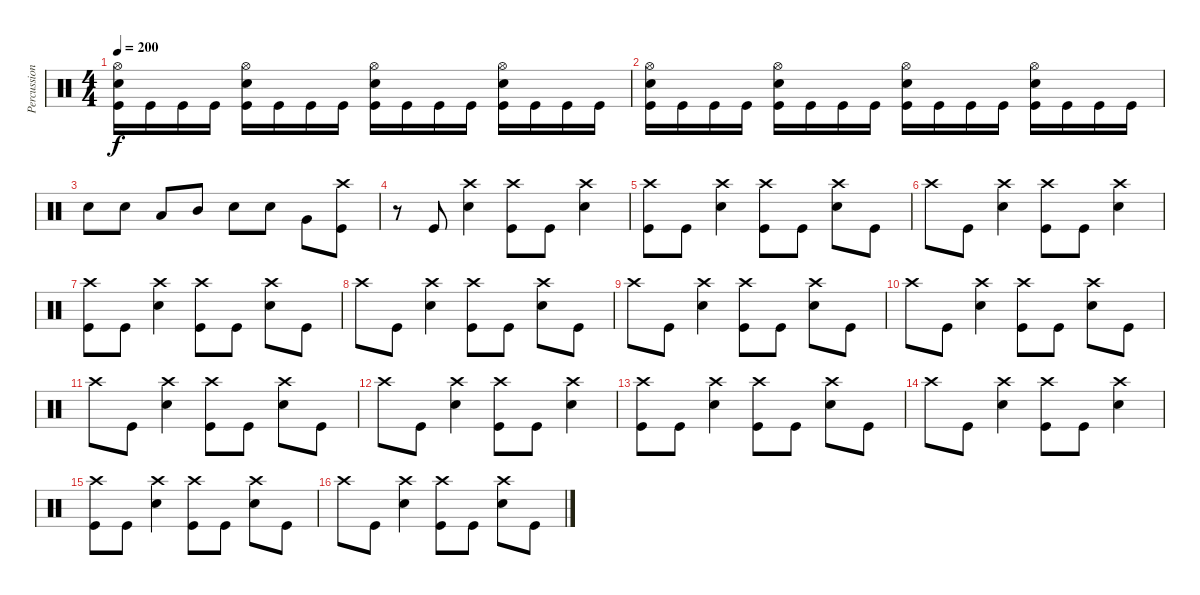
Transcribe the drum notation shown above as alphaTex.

\track ("Percussion" "Percussion") {instrument percussion}
\staff {score}
\articulation defaults
\ts (4 4)
\tempo 200
\clef neutral
\ks c
("Hi-Hat (open)" "Snare (hit) 2" "Kick (hit)").16{dy f} "Kick (hit)".16 "Kick (hit)".16 "Kick (hit)".16 ("Hi-Hat (open)" "Snare (hit) 2" "Kick (hit)").16 "Kick (hit)".16 "Kick (hit)".16 "Kick (hit)".16 ("Hi-Hat (open)" "Snare (hit) 2" "Kick (hit)").16 "Kick (hit)".16 "Kick (hit)".16 "Kick (hit)".16 ("Hi-Hat (open)" "Snare (hit) 2" "Kick (hit)").16 "Kick (hit)".16 "Kick (hit)".16 "Kick (hit)".16 |
("Hi-Hat (open)" "Snare (hit) 2" "Kick (hit)").16 "Kick (hit)".16 "Kick (hit)".16 "Kick (hit)".16 ("Hi-Hat (open)" "Snare (hit) 2" "Kick (hit)").16 "Kick (hit)".16 "Kick (hit)".16 "Kick (hit)".16 ("Hi-Hat (open)" "Snare (hit) 2" "Kick (hit)").16 "Kick (hit)".16 "Kick (hit)".16 "Kick (hit)".16 ("Hi-Hat (open)" "Snare (hit) 2" "Kick (hit)").16 "Kick (hit)".16 "Kick (hit)".16 "Kick (hit)".16 |
"Snare (hit) 2".8 "Snare (hit) 2".8 "Low Tom (hit)".8 "Mid Tom (hit)".8 "Snare (hit) 2".8 "Snare (hit) 2".8 "Very Low Tom (hit)".8 ("Crash high (hit)" "Kick (hit)").8 |
r.8 "Kick (hit)".8 ("Crash high (hit)" "Snare (hit) 2").4 ("Crash high (hit)" "Kick (hit)").8 "Kick (hit)".8 ("Crash high (hit)" "Snare (hit) 2").4 |
("Crash high (hit)" "Kick (hit)").8 "Kick (hit)".8 ("Crash high (hit)" "Snare (hit) 2").4 ("Crash high (hit)" "Kick (hit)").8 "Kick (hit)".8 ("Crash high (hit)" "Snare (hit) 2").8 "Kick (hit)".8 |
"Crash high (hit)".8 "Kick (hit)".8 ("Crash high (hit)" "Snare (hit) 2").4 ("Crash high (hit)" "Kick (hit)").8 "Kick (hit)".8 ("Crash high (hit)" "Snare (hit) 2").4 |
("Crash high (hit)" "Kick (hit)").8 "Kick (hit)".8 ("Crash high (hit)" "Snare (hit) 2").4 ("Crash high (hit)" "Kick (hit)").8 "Kick (hit)".8 ("Crash high (hit)" "Snare (hit) 2").8 "Kick (hit)".8 |
"Crash high (hit)".8 "Kick (hit)".8 ("Crash high (hit)" "Snare (hit) 2").4 ("Crash high (hit)" "Kick (hit)").8 "Kick (hit)".8 ("Crash high (hit)" "Snare (hit) 2").8 "Kick (hit)".8 |
"Crash high (hit)".8 "Kick (hit)".8 ("Crash high (hit)" "Snare (hit) 2").4 ("Crash high (hit)" "Kick (hit)").8 "Kick (hit)".8 ("Crash high (hit)" "Snare (hit) 2").8 "Kick (hit)".8 |
"Crash high (hit)".8 "Kick (hit)".8 ("Crash high (hit)" "Snare (hit) 2").4 ("Crash high (hit)" "Kick (hit)").8 "Kick (hit)".8 ("Crash high (hit)" "Snare (hit) 2").8 "Kick (hit)".8 |
"Crash high (hit)".8 "Kick (hit)".8 ("Crash high (hit)" "Snare (hit) 2").4 ("Crash high (hit)" "Kick (hit)").8 "Kick (hit)".8 ("Crash high (hit)" "Snare (hit) 2").8 "Kick (hit)".8 |
"Crash high (hit)".8 "Kick (hit)".8 ("Crash high (hit)" "Snare (hit) 2").4 ("Crash high (hit)" "Kick (hit)").8 "Kick (hit)".8 ("Crash high (hit)" "Snare (hit) 2").4 |
("Crash high (hit)" "Kick (hit)").8 "Kick (hit)".8 ("Crash high (hit)" "Snare (hit) 2").4 ("Crash high (hit)" "Kick (hit)").8 "Kick (hit)".8 ("Crash high (hit)" "Snare (hit) 2").8 "Kick (hit)".8 |
"Crash high (hit)".8 "Kick (hit)".8 ("Crash high (hit)" "Snare (hit) 2").4 ("Crash high (hit)" "Kick (hit)").8 "Kick (hit)".8 ("Crash high (hit)" "Snare (hit) 2").4 |
("Crash high (hit)" "Kick (hit)").8 "Kick (hit)".8 ("Crash high (hit)" "Snare (hit) 2").4 ("Crash high (hit)" "Kick (hit)").8 "Kick (hit)".8 ("Crash high (hit)" "Snare (hit) 2").8 "Kick (hit)".8 |
"Crash high (hit)".8 "Kick (hit)".8 ("Crash high (hit)" "Snare (hit) 2").4 ("Crash high (hit)" "Kick (hit)").8 "Kick (hit)".8 ("Crash high (hit)" "Snare (hit) 2").8 "Kick (hit)".8
